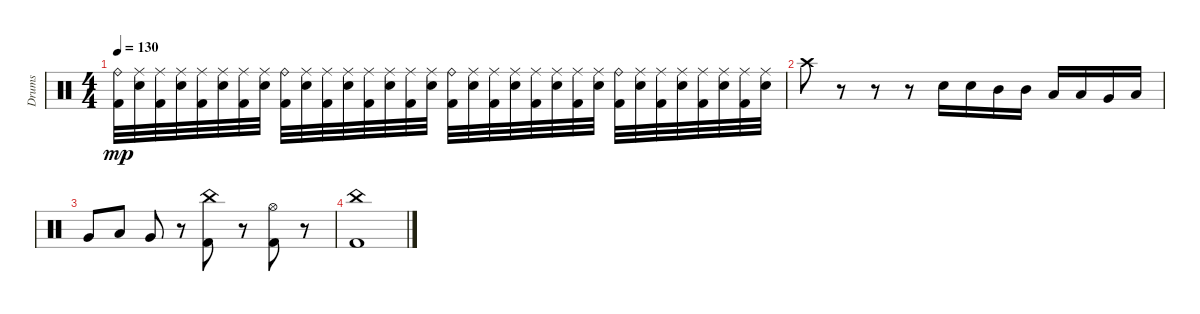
\track ("Drums" "Drums") {instrument percussion}
\staff {score}
\articulation defaults
\ts (4 4)
\tempo 130
\clef neutral
\ks c
("Kick (hit) 2" "Ride (bell)").32{dy mp} ("Electric Snare (hit)" "Ride (middle)").32 ("Kick (hit) 2" "Ride (middle)").32 ("Electric Snare (hit)" "Ride (middle)").32 ("Kick (hit) 2" "Ride (middle)").32 ("Electric Snare (hit)" "Ride (middle)").32 ("Kick (hit) 2" "Ride (middle)").32 ("Electric Snare (hit)" "Ride (middle)").32 ("Kick (hit) 2" "Ride (bell)").32 ("Electric Snare (hit)" "Ride (middle)").32 ("Kick (hit) 2" "Ride (middle)").32 ("Electric Snare (hit)" "Ride (middle)").32 ("Kick (hit) 2" "Ride (middle)").32 ("Electric Snare (hit)" "Ride (middle)").32 ("Kick (hit) 2" "Ride (middle)").32 ("Electric Snare (hit)" "Ride (middle)").32 ("Kick (hit) 2" "Ride (bell)").32 ("Electric Snare (hit)" "Ride (middle)").32 ("Kick (hit) 2" "Ride (middle)").32 ("Electric Snare (hit)" "Ride (middle)").32 ("Kick (hit) 2" "Ride (middle)").32 ("Electric Snare (hit)" "Ride (middle)").32 ("Kick (hit) 2" "Ride (middle)").32 ("Electric Snare (hit)" "Ride (middle)").32 ("Kick (hit) 2" "Ride (bell)").32 ("Electric Snare (hit)" "Ride (middle)").32 ("Kick (hit) 2" "Ride (middle)").32 ("Electric Snare (hit)" "Ride (middle)").32 ("Kick (hit) 2" "Ride (middle)").32 ("Electric Snare (hit)" "Ride (middle)").32 ("Kick (hit) 2" "Ride (middle)").32 ("Electric Snare (hit)" "Ride (middle)").32 |
"Crash high (hit)".8 r.8 r.8 r.8 "Electric Snare (hit)".16 "Electric Snare (hit)".16 "Mid Tom (hit)".16 "Mid Tom (hit)".16 "Low Tom (hit)".16 "Low Tom (hit)".16 "Very Low Tom (hit)".16 "Low Floor Tom (hit)".16 |
"Very Low Tom (hit)".8 "Low Tom (hit)".8 "Very Low Tom (hit)".8 r.8 ("Kick (hit) 2" "China (hit)").8 r.8 ("Kick (hit) 2" "Hi-Hat (open)").8 r.8 |
("Kick (hit) 2" "China (hit)").1
